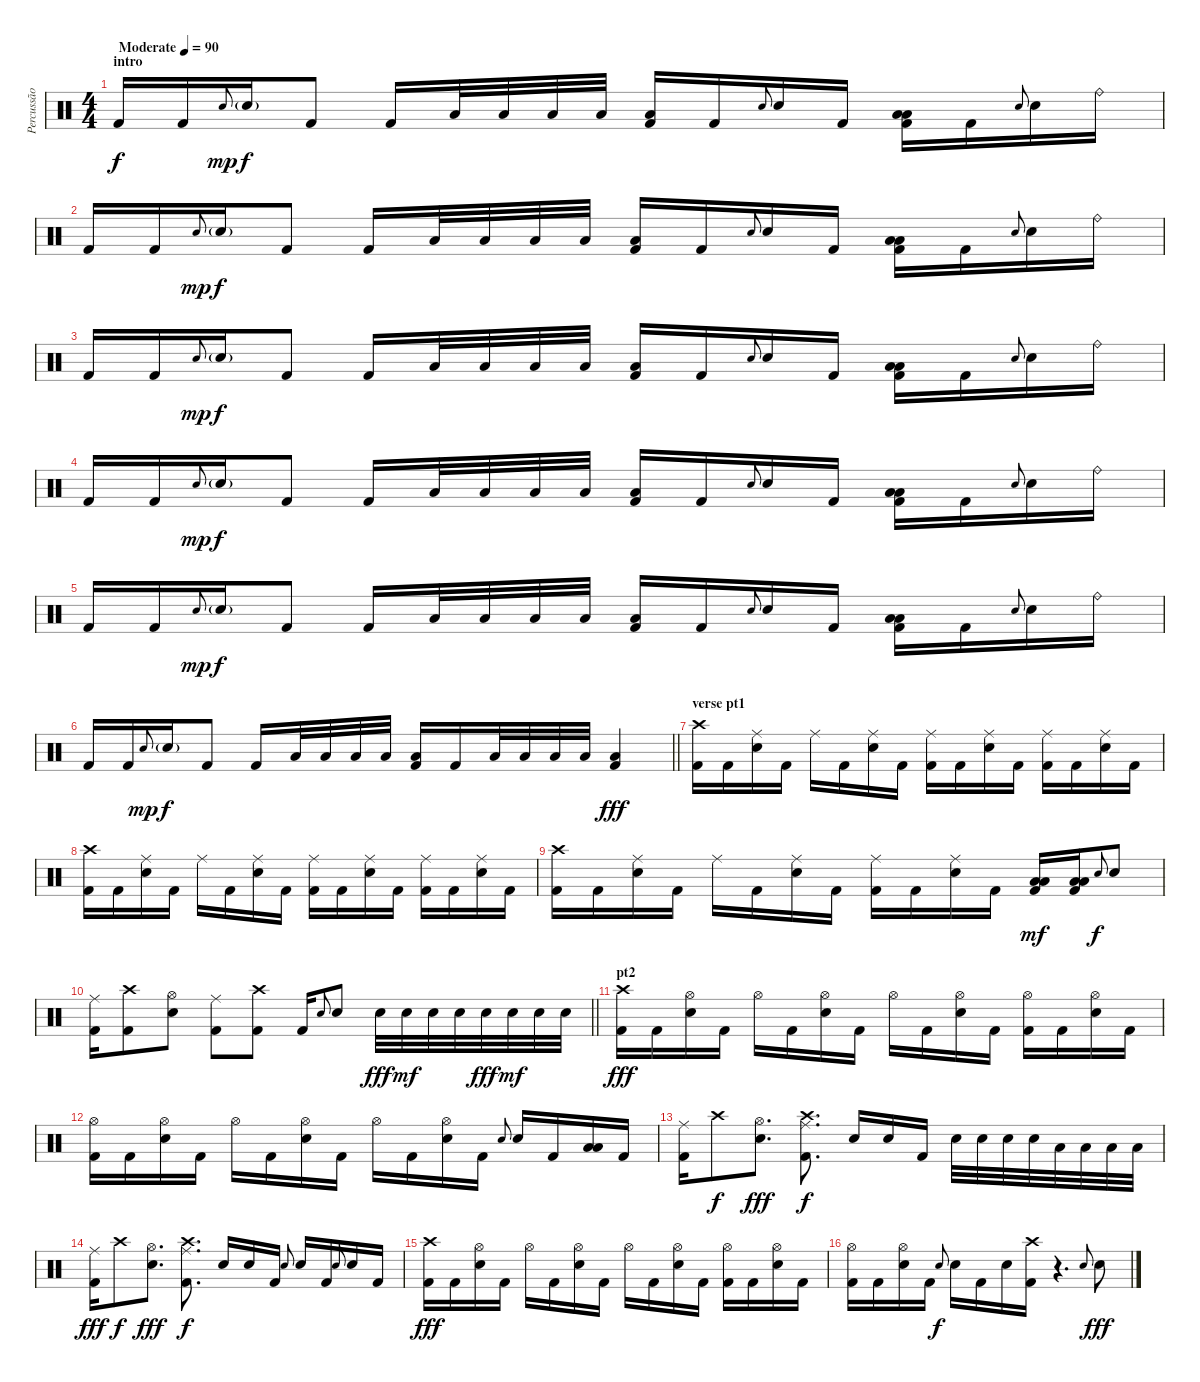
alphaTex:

\track ("Percussão" "Percussão") {instrument percussion}
\staff {score}
\articulation defaults
\ts (4 4)
\section ("" "intro")
\tempo (90 "Moderate")
\clef neutral
\ks c "Kick (hit) 2".16{dy f} "Kick (hit) 2".16 "Electric Snare (hit)".8{gr onbeat dy mp} "Electric Snare (hit)"{g}.16{dy f} "Kick (hit) 2".8 "Kick (hit) 2".16 "Low Tom (hit)".32 "Low Tom (hit)".32 "Low Floor Tom (hit)".32 "Low Floor Tom (hit)".32
("Low Floor Tom (hit)" "Kick (hit) 2").16 "Kick (hit) 2".16 "Electric Snare (hit)".8{gr onbeat} "Electric Snare (hit)".16 "Kick (hit) 2".16 ("Low Tom (hit)" "Low Floor Tom (hit)" "Kick (hit) 2").16 "Kick (hit) 2".16 "Electric Snare (hit)".8{gr onbeat} "Electric Snare (hit)".16 "Ride (bell)".16 |
"Kick (hit) 2".16 "Kick (hit) 2".16 "Electric Snare (hit)".8{gr onbeat dy mp} "Electric Snare (hit)"{g}.16{dy f} "Kick (hit) 2".8 "Kick (hit) 2".16 "Low Tom (hit)".32 "Low Tom (hit)".32 "Low Floor Tom (hit)".32 "Low Floor Tom (hit)".32 ("Low Floor Tom (hit)" "Kick (hit) 2").16 "Kick (hit) 2".16 "Electric Snare (hit)".8{gr onbeat} "Electric Snare (hit)".16 "Kick (hit) 2".16 ("Low Tom (hit)" "Low Floor Tom (hit)" "Kick (hit) 2").16 "Kick (hit) 2".16 "Electric Snare (hit)".8{gr onbeat} "Electric Snare (hit)".16 "Ride (bell)".16 |
"Kick (hit) 2".16 "Kick (hit) 2".16 "Electric Snare (hit)".8{gr onbeat dy mp} "Electric Snare (hit)"{g}.16{dy f} "Kick (hit) 2".8 "Kick (hit) 2".16 "Low Tom (hit)".32 "Low Tom (hit)".32 "Low Floor Tom (hit)".32 "Low Floor Tom (hit)".32 ("Low Floor Tom (hit)" "Kick (hit) 2").16 "Kick (hit) 2".16 "Electric Snare (hit)".8{gr onbeat} "Electric Snare (hit)".16 "Kick (hit) 2".16 ("Low Tom (hit)" "Low Floor Tom (hit)" "Kick (hit) 2").16 "Kick (hit) 2".16 "Electric Snare (hit)".8{gr onbeat} "Electric Snare (hit)".16 "Ride (bell)".16 |
"Kick (hit) 2".16 "Kick (hit) 2".16 "Electric Snare (hit)".8{gr onbeat dy mp} "Electric Snare (hit)"{g}.16{dy f} "Kick (hit) 2".8 "Kick (hit) 2".16 "Low Tom (hit)".32 "Low Tom (hit)".32 "Low Floor Tom (hit)".32 "Low Floor Tom (hit)".32 ("Low Floor Tom (hit)" "Kick (hit) 2").16 "Kick (hit) 2".16 "Electric Snare (hit)".8{gr onbeat} "Electric Snare (hit)".16 "Kick (hit) 2".16 ("Low Tom (hit)" "Low Floor Tom (hit)" "Kick (hit) 2").16 "Kick (hit) 2".16 "Electric Snare (hit)".8{gr onbeat} "Electric Snare (hit)".16 "Ride (bell)".16 |
"Kick (hit) 2".16 "Kick (hit) 2".16 "Electric Snare (hit)".8{gr onbeat dy mp} "Electric Snare (hit)"{g}.16{dy f} "Kick (hit) 2".8 "Kick (hit) 2".16 "Low Tom (hit)".32 "Low Tom (hit)".32 "Low Floor Tom (hit)".32 "Low Floor Tom (hit)".32 ("Low Floor Tom (hit)" "Kick (hit) 2").16 "Kick (hit) 2".16 "Electric Snare (hit)".8{gr onbeat} "Electric Snare (hit)".16 "Kick (hit) 2".16 ("Low Tom (hit)" "Low Floor Tom (hit)" "Kick (hit) 2").16 "Kick (hit) 2".16 "Electric Snare (hit)".8{gr onbeat} "Electric Snare (hit)".16 "Ride (bell)".16 |
\barLineRight lightlight "Kick (hit) 2".16 "Kick (hit) 2".16 "Electric Snare (hit)".8{gr onbeat dy mp} "Electric Snare (hit)"{g}.16{dy f} "Kick (hit) 2".8 "Kick (hit) 2".16 "Low Tom (hit)".32 "Low Tom (hit)".32 "Low Floor Tom (hit)".32 "Low Floor Tom (hit)".32
("Low Floor Tom (hit)" "Kick (hit) 2").16 "Kick (hit) 2".16 "Low Tom (hit)".32 "Low Tom (hit)".32 "Low Floor Tom (hit)".32 "Low Floor Tom (hit)".32 ("Low Floor Tom (hit)" "Kick (hit) 2").4{dy fff} |
\section ("" "verse pt1")
("Crash high (hit)" "Kick (hit) 2").16 "Kick (hit) 2".16 ("Ride (middle)" "Electric Snare (hit)").16 "Kick (hit) 2".16 "Ride (middle)".16 "Kick (hit) 2".16 ("Ride (middle)" "Electric Snare (hit)").16 "Kick (hit) 2".16 ("Ride (middle)" "Kick (hit) 2").16 "Kick (hit) 2".16 ("Ride (middle)" "Electric Snare (hit)").16 "Kick (hit) 2".16 ("Ride (middle)" "Kick (hit) 2").16 "Kick (hit) 2".16 ("Ride (middle)" "Electric Snare (hit)").16 "Kick (hit) 2".16 |
("Crash high (hit)" "Kick (hit) 2").16 "Kick (hit) 2".16 ("Ride (middle)" "Electric Snare (hit)").16 "Kick (hit) 2".16 "Ride (middle)".16 "Kick (hit) 2".16 ("Ride (middle)" "Electric Snare (hit)").16 "Kick (hit) 2".16 ("Ride (middle)" "Kick (hit) 2").16 "Kick (hit) 2".16 ("Ride (middle)" "Electric Snare (hit)").16 "Kick (hit) 2".16 ("Ride (middle)" "Kick (hit) 2").16 "Kick (hit) 2".16 ("Ride (middle)" "Electric Snare (hit)").16 "Kick (hit) 2".16 |
("Crash high (hit)" "Kick (hit) 2").16 "Kick (hit) 2".16 ("Ride (middle)" "Electric Snare (hit)").16 "Kick (hit) 2".16 "Ride (middle)".16 "Kick (hit) 2".16 ("Ride (middle)" "Electric Snare (hit)").16 "Kick (hit) 2".16 ("Ride (middle)" "Kick (hit) 2").16 "Kick (hit) 2".16 ("Ride (middle)" "Electric Snare (hit)").16 "Kick (hit) 2".16 ("Low Tom (hit)" "Low Floor Tom (hit)" "Kick (hit) 2").16{dy mf} ("Low Tom (hit)" "Low Floor Tom (hit)" "Kick (hit) 2").16 "Electric Snare (hit)".8{gr onbeat dy f} "Electric Snare (hit)".8 |
\barLineRight lightlight
("Ride (middle)" "Kick (hit) 2").16 ("Crash high (hit)" "Kick (hit) 2").8 ("Hi-Hat (open)" "Electric Snare (hit)").8 ("Ride (middle)" "Kick (hit) 2").8 ("Crash high (hit)" "Kick (hit) 2").8 "Kick (hit) 2".16 "Electric Snare (hit)".8{gr onbeat} "Electric Snare (hit)".8 "Electric Snare (hit)".32{dy fff} "Electric Snare (hit)".32{dy mf} "Electric Snare (hit)".32 "Electric Snare (hit)".32 "Electric Snare (hit)".32{dy fff} "Electric Snare (hit)".32{dy mf} "Electric Snare (hit)".32 "Electric Snare (hit)".32 |
\section ("" "pt2")
("Crash high (hit)" "Kick (hit) 2").16{dy fff} "Kick (hit) 2".16 ("Hi-Hat (open)" "Electric Snare (hit)").16 "Kick (hit) 2".16 "Hi-Hat (open)".16 "Kick (hit) 2".16 ("Hi-Hat (open)" "Electric Snare (hit)").16 "Kick (hit) 2".16 "Hi-Hat (open)".16 "Kick (hit) 2".16 ("Hi-Hat (open)" "Electric Snare (hit)").16 "Kick (hit) 2".16 ("Hi-Hat (open)" "Kick (hit) 2").16 "Kick (hit) 2".16 ("Hi-Hat (open)" "Electric Snare (hit)").16 "Kick (hit) 2".16 |
("Hi-Hat (open)" "Kick (hit) 2").16 "Kick (hit) 2".16 ("Hi-Hat (open)" "Electric Snare (hit)").16 "Kick (hit) 2".16 "Hi-Hat (open)".16 "Kick (hit) 2".16 ("Hi-Hat (open)" "Electric Snare (hit)").16 "Kick (hit) 2".16 "Hi-Hat (open)".16 "Kick (hit) 2".16 ("Hi-Hat (open)" "Electric Snare (hit)").16 "Kick (hit) 2".16 "Electric Snare (hit)".8{gr onbeat} "Electric Snare (hit)".16 "Kick (hit) 2".16 ("Low Tom (hit)" "Low Floor Tom (hit)").16 "Kick (hit) 2".16 |
("Ride (middle)" "Kick (hit) 2").16 "Crash high (hit)".8{dy f} ("Hi-Hat (open)" "Electric Snare (hit)").8{d dy fff} ("Crash high (hit)" "Ride (middle)" "Kick (hit) 2").8{d dy f} "Electric Snare (hit)".16 "Electric Snare (hit)".16 "Kick (hit) 2".16 "Electric Snare (hit)".32 "Electric Snare (hit)".32 "Electric Snare (hit)".32 "Electric Snare (hit)".32 "Low Floor Tom (hit)".32 "Low Floor Tom (hit)".32 "Low Floor Tom (hit)".32 "Low Floor Tom (hit)".32 |
("Ride (middle)" "Kick (hit) 2").16{dy fff} "Crash high (hit)".8{dy f} ("Hi-Hat (open)" "Electric Snare (hit)").8{d dy fff} ("Crash high (hit)" "Ride (middle)" "Kick (hit) 2").8{d dy f} "Electric Snare (hit)".16 "Electric Snare (hit)".16 "Kick (hit) 2".16 "Electric Snare (hit)".8{gr onbeat} "Electric Snare (hit)".16 "Kick (hit) 2".16 "Electric Snare (hit)".8{gr onbeat} "Electric Snare (hit)".16 "Kick (hit) 2".16 |
("Crash high (hit)" "Kick (hit) 2").16{dy fff} "Kick (hit) 2".16 ("Hi-Hat (open)" "Electric Snare (hit)").16 "Kick (hit) 2".16 "Hi-Hat (open)".16 "Kick (hit) 2".16 ("Hi-Hat (open)" "Electric Snare (hit)").16 "Kick (hit) 2".16 "Hi-Hat (open)".16 "Kick (hit) 2".16 ("Hi-Hat (open)" "Electric Snare (hit)").16 "Kick (hit) 2".16 ("Hi-Hat (open)" "Kick (hit) 2").16 "Kick (hit) 2".16 ("Hi-Hat (open)" "Electric Snare (hit)").16 "Kick (hit) 2".16 |
("Hi-Hat (open)" "Kick (hit) 2").16 "Kick (hit) 2".16 ("Hi-Hat (open)" "Electric Snare (hit)").16 "Kick (hit) 2".16 "Electric Snare (hit)".8{gr onbeat dy f} "Electric Snare (hit)".16 "Kick (hit) 2".16 "Electric Snare (hit)".16 ("Crash high (hit)" "Kick (hit) 2").16 r.4{d} "Electric Snare (hit)".8{gr onbeat} "Electric Snare (hit)".8{dy fff}
